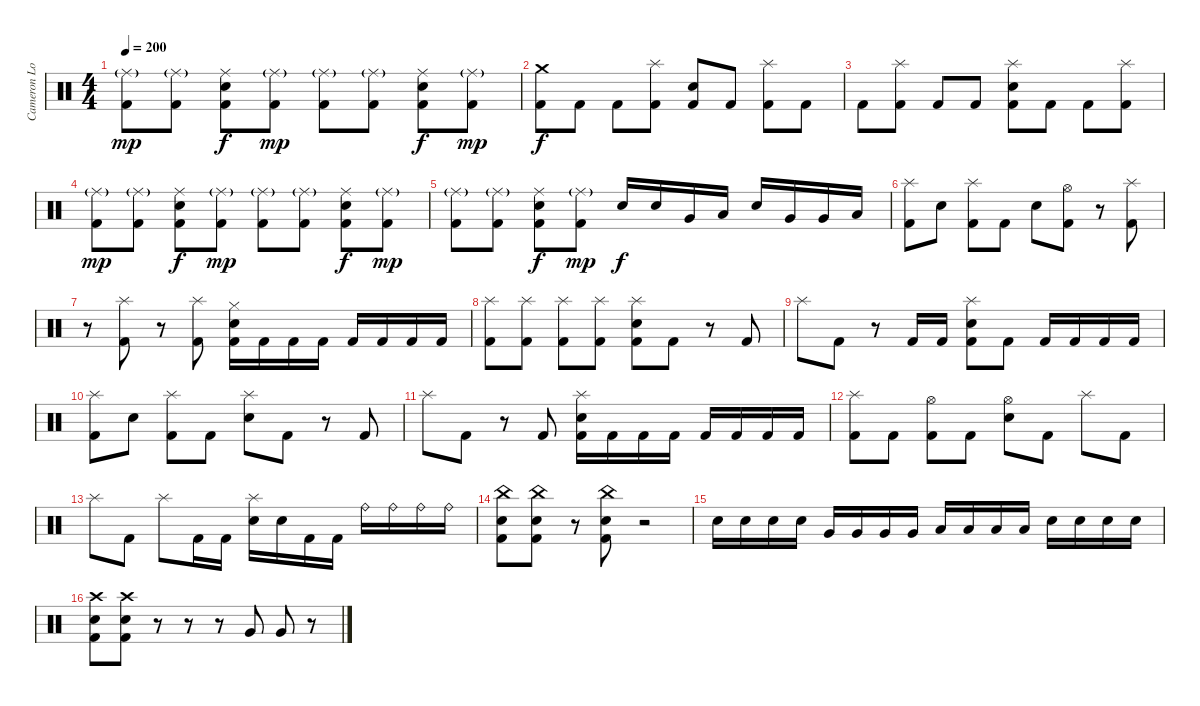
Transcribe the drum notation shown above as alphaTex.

\track ("Cameron Losch - drums" "Cameron Lo") {instrument percussion}
\staff {score}
\articulation defaults
\ts (4 4)
\tempo 200
\clef neutral
\ks c
("Ride (middle)"{g} "Kick (hit) 2").8{dy mp} ("Ride (middle)"{g} "Kick (hit) 2").8 ("Ride (middle)" "Electric Snare (hit)" "Kick (hit) 2").8{dy f} ("Ride (middle)"{g} "Kick (hit) 2").8{dy mp} ("Ride (middle)"{g} "Kick (hit) 2").8 ("Ride (middle)"{g} "Kick (hit) 2").8 ("Ride (middle)" "Electric Snare (hit)" "Kick (hit) 2").8{dy f} ("Ride (middle)"{g} "Kick (hit) 2").8{dy mp} |
("Crash medium (hit)" "Kick (hit) 2").8{dy f} "Kick (hit) 2".8 "Kick (hit) 2".8 ("Splash (hit)" "Kick (hit) 2").8 ("Electric Snare (hit)" "Kick (hit) 2").8 "Kick (hit) 2".8 ("Splash (hit)" "Kick (hit) 2").8 "Kick (hit) 2".8 |
"Kick (hit) 2".8 ("Splash (hit)" "Kick (hit) 2").8 "Kick (hit) 2".8 "Kick (hit) 2".8 ("Splash (hit)" "Electric Snare (hit)" "Kick (hit) 2").8 "Kick (hit) 2".8 "Kick (hit) 2".8 ("Splash (hit)" "Kick (hit) 2").8 |
("Ride (middle)"{g} "Kick (hit) 2").8{dy mp} ("Ride (middle)"{g} "Kick (hit) 2").8 ("Ride (middle)" "Electric Snare (hit)" "Kick (hit) 2").8{dy f} ("Ride (middle)"{g} "Kick (hit) 2").8{dy mp} ("Ride (middle)"{g} "Kick (hit) 2").8 ("Ride (middle)"{g} "Kick (hit) 2").8 ("Ride (middle)" "Electric Snare (hit)" "Kick (hit) 2").8{dy f} ("Ride (middle)"{g} "Kick (hit) 2").8{dy mp} |
("Ride (middle)"{g} "Kick (hit) 2").8 ("Ride (middle)"{g} "Kick (hit) 2").8 ("Ride (middle)" "Electric Snare (hit)" "Kick (hit) 2").8{dy f} ("Ride (middle)"{g} "Kick (hit) 2").8{dy mp} "Electric Snare (hit)".16{dy f} "Electric Snare (hit)".16 "Very Low Tom (hit)".16 "Low Floor Tom (hit)".16 "Electric Snare (hit)".16 "Very Low Tom (hit)".16 "Very Low Tom (hit)".16 "Low Floor Tom (hit)".16 |
("Splash (hit)" "Kick (hit) 2").8 "Electric Snare (hit)".8 ("Splash (hit)" "Kick (hit) 2").8 "Kick (hit) 2".8 "Electric Snare (hit)".8 ("Hi-Hat (open)" "Kick (hit) 2").8 r.8 ("Splash (hit)" "Kick (hit) 2").8 |
r.8 ("Splash (hit)" "Kick (hit) 2").8 r.8 ("Splash (hit)" "Kick (hit) 2").8 ("Hi-Hat (closed)" "Electric Snare (hit)" "Kick (hit) 2").16 "Kick (hit) 2".16 "Kick (hit) 2".16 "Kick (hit) 2".16 "Kick (hit) 2".16 "Kick (hit) 2".16 "Kick (hit) 2".16 "Kick (hit) 2".16 |
("Splash (hit)" "Kick (hit) 2").8 ("Splash (hit)" "Kick (hit) 2").8 ("Splash (hit)" "Kick (hit) 2").8 ("Splash (hit)" "Kick (hit) 2").8 ("Splash (hit)" "Electric Snare (hit)" "Kick (hit) 2").8 "Kick (hit) 2".8 r.8 "Kick (hit) 2".8 |
"Splash (hit)".8 "Kick (hit) 2".8 r.8 "Kick (hit) 2".16 "Kick (hit) 2".16 ("Splash (hit)" "Electric Snare (hit)" "Kick (hit) 2").8 "Kick (hit) 2".8 "Kick (hit) 2".16 "Kick (hit) 2".16 "Kick (hit) 2".16 "Kick (hit) 2".16 |
("Splash (hit)" "Kick (hit) 2").8 "Electric Snare (hit)".8 ("Splash (hit)" "Kick (hit) 2").8 "Kick (hit) 2".8 ("Splash (hit)" "Electric Snare (hit)").8 "Kick (hit) 2".8 r.8 "Kick (hit) 2".8 |
"Splash (hit)".8 "Kick (hit) 2".8 r.8 "Kick (hit) 2".8 ("Splash (hit)" "Electric Snare (hit)" "Kick (hit) 2").16 "Kick (hit) 2".16 "Kick (hit) 2".16 "Kick (hit) 2".16 "Kick (hit) 2".16 "Kick (hit) 2".16 "Kick (hit) 2".16 "Kick (hit) 2".16 |
("Splash (hit)" "Kick (hit) 2").8 "Kick (hit) 2".8 ("Hi-Hat (open)" "Kick (hit) 2").8 "Kick (hit) 2".8 ("Hi-Hat (open)" "Electric Snare (hit)").8 "Kick (hit) 2".8 "Splash (hit)".8 "Kick (hit) 2".8 |
"Splash (hit)".8 "Kick (hit) 2".8 "Splash (hit)".8 "Kick (hit) 2".16 "Kick (hit) 2".16 ("Splash (hit)" "Electric Snare (hit)").16 "Electric Snare (hit)".16 "Kick (hit) 2".16 "Kick (hit) 2".16 "Ride (bell)".16 "Ride (bell)".16 "Ride (bell)".16 "Ride (bell)".16 |
("China (hit)" "Electric Snare (hit)" "Kick (hit) 2").8 ("China (hit)" "Electric Snare (hit)" "Kick (hit) 2").8 r.8 ("China (hit)" "Electric Snare (hit)" "Kick (hit) 2").8 r.2 |
"Electric Snare (hit)".16 "Electric Snare (hit)".16 "Electric Snare (hit)".16 "Electric Snare (hit)".16 "Very Low Tom (hit)".16 "Very Low Tom (hit)".16 "Very Low Tom (hit)".16 "Very Low Tom (hit)".16 "Low Floor Tom (hit)".16 "Low Floor Tom (hit)".16 "Low Floor Tom (hit)".16 "Low Floor Tom (hit)".16 "Electric Snare (hit)".16 "Electric Snare (hit)".16 "Electric Snare (hit)".16 "Electric Snare (hit)".16 |
("Crash high (hit)" "Electric Snare (hit)" "Kick (hit) 2").8 ("Crash high (hit)" "Electric Snare (hit)" "Kick (hit) 2").8 r.8 r.8 r.8 "Very Low Tom (hit)".8 "Very Low Tom (hit)".8 r.8
